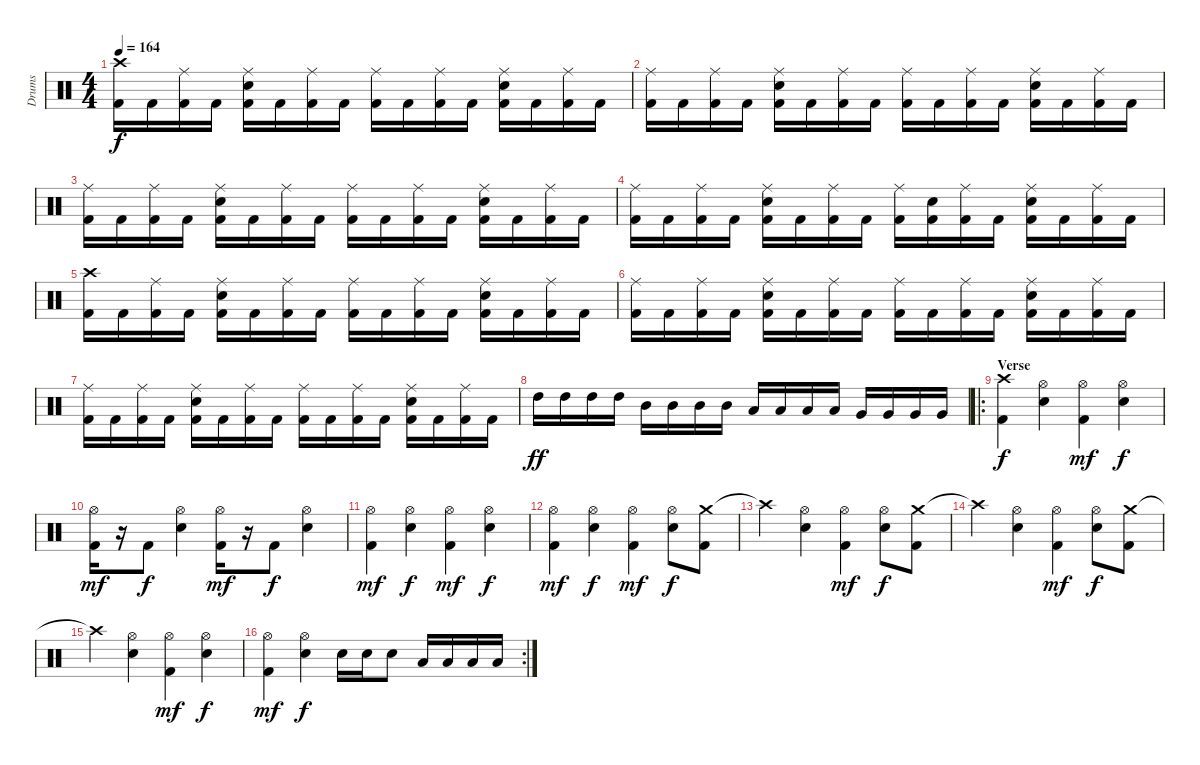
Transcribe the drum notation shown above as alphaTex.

\track ("Drums" "Drums") {instrument percussion}
\staff {score}
\articulation defaults
\ts (4 4)
\tempo 164
\clef neutral
\ks c
("Crash high (hit)" "Kick (hit) 2").16{dy f} "Kick (hit) 2".16 ("Ride (middle)" "Kick (hit) 2").16 "Kick (hit) 2".16 ("Ride (middle)" "Electric Snare (hit)" "Kick (hit) 2").16 "Kick (hit) 2".16 ("Ride (middle)" "Kick (hit) 2").16 "Kick (hit) 2".16 ("Ride (middle)" "Kick (hit) 2").16 "Kick (hit) 2".16 ("Ride (middle)" "Kick (hit) 2").16 "Kick (hit) 2".16 ("Ride (middle)" "Electric Snare (hit)" "Kick (hit) 2").16 "Kick (hit) 2".16 ("Ride (middle)" "Kick (hit) 2").16 "Kick (hit) 2".16 |
("Ride (middle)" "Kick (hit) 2").16 "Kick (hit) 2".16 ("Ride (middle)" "Kick (hit) 2").16 "Kick (hit) 2".16 ("Ride (middle)" "Electric Snare (hit)" "Kick (hit) 2").16 "Kick (hit) 2".16 ("Ride (middle)" "Kick (hit) 2").16 "Kick (hit) 2".16 ("Ride (middle)" "Kick (hit) 2").16 "Kick (hit) 2".16 ("Ride (middle)" "Kick (hit) 2").16 "Kick (hit) 2".16 ("Ride (middle)" "Electric Snare (hit)" "Kick (hit) 2").16 "Kick (hit) 2".16 ("Ride (middle)" "Kick (hit) 2").16 "Kick (hit) 2".16 |
("Ride (middle)" "Kick (hit) 2").16 "Kick (hit) 2".16 ("Ride (middle)" "Kick (hit) 2").16 "Kick (hit) 2".16 ("Ride (middle)" "Electric Snare (hit)" "Kick (hit) 2").16 "Kick (hit) 2".16 ("Ride (middle)" "Kick (hit) 2").16 "Kick (hit) 2".16 ("Ride (middle)" "Kick (hit) 2").16 "Kick (hit) 2".16 ("Ride (middle)" "Kick (hit) 2").16 "Kick (hit) 2".16 ("Ride (middle)" "Electric Snare (hit)" "Kick (hit) 2").16 "Kick (hit) 2".16 ("Ride (middle)" "Kick (hit) 2").16 "Kick (hit) 2".16 |
("Ride (middle)" "Kick (hit) 2").16 "Kick (hit) 2".16 ("Ride (middle)" "Kick (hit) 2").16 "Kick (hit) 2".16 ("Ride (middle)" "Electric Snare (hit)" "Kick (hit) 2").16 "Kick (hit) 2".16 ("Ride (middle)" "Kick (hit) 2").16 "Kick (hit) 2".16 ("Ride (middle)" "Kick (hit) 2").16 ("Electric Snare (hit)" "Kick (hit) 2").16 ("Ride (middle)" "Kick (hit) 2").16 "Kick (hit) 2".16 ("Ride (middle)" "Electric Snare (hit)" "Kick (hit) 2").16 "Kick (hit) 2".16 ("Ride (middle)" "Kick (hit) 2").16 "Kick (hit) 2".16 |
("Crash high (hit)" "Kick (hit) 2").16 "Kick (hit) 2".16 ("Ride (middle)" "Kick (hit) 2").16 "Kick (hit) 2".16 ("Ride (middle)" "Electric Snare (hit)" "Kick (hit) 2").16 "Kick (hit) 2".16 ("Ride (middle)" "Kick (hit) 2").16 "Kick (hit) 2".16 ("Ride (middle)" "Kick (hit) 2").16 "Kick (hit) 2".16 ("Ride (middle)" "Kick (hit) 2").16 "Kick (hit) 2".16 ("Ride (middle)" "Electric Snare (hit)" "Kick (hit) 2").16 "Kick (hit) 2".16 ("Ride (middle)" "Kick (hit) 2").16 "Kick (hit) 2".16 |
("Ride (middle)" "Kick (hit) 2").16 "Kick (hit) 2".16 ("Ride (middle)" "Kick (hit) 2").16 "Kick (hit) 2".16 ("Ride (middle)" "Electric Snare (hit)" "Kick (hit) 2").16 "Kick (hit) 2".16 ("Ride (middle)" "Kick (hit) 2").16 "Kick (hit) 2".16 ("Ride (middle)" "Kick (hit) 2").16 "Kick (hit) 2".16 ("Ride (middle)" "Kick (hit) 2").16 "Kick (hit) 2".16 ("Ride (middle)" "Electric Snare (hit)" "Kick (hit) 2").16 "Kick (hit) 2".16 ("Ride (middle)" "Kick (hit) 2").16 "Kick (hit) 2".16 |
("Ride (middle)" "Kick (hit) 2").16 "Kick (hit) 2".16 ("Ride (middle)" "Kick (hit) 2").16 "Kick (hit) 2".16 ("Ride (middle)" "Electric Snare (hit)" "Kick (hit) 2").16 "Kick (hit) 2".16 ("Ride (middle)" "Kick (hit) 2").16 "Kick (hit) 2".16 ("Ride (middle)" "Kick (hit) 2").16 "Kick (hit) 2".16 ("Ride (middle)" "Kick (hit) 2").16 "Kick (hit) 2".16 ("Ride (middle)" "Electric Snare (hit)" "Kick (hit) 2").16 "Kick (hit) 2".16 ("Ride (middle)" "Kick (hit) 2").16 "Kick (hit) 2".16 |
"High Tom (hit)".16{dy ff} "High Tom (hit)".16 "High Tom (hit)".16 "High Tom (hit)".16 "Mid Tom (hit)".16 "Mid Tom (hit)".16 "Mid Tom (hit)".16 "Mid Tom (hit)".16 "Low Tom (hit)".16 "Low Tom (hit)".16 "Low Tom (hit)".16 "Low Tom (hit)".16 "Very Low Tom (hit)".16 "Very Low Tom (hit)".16 "Very Low Tom (hit)".16 "Very Low Tom (hit)".16 |
\ro
\section ("" "Verse")
("Crash high (hit)" "Kick (hit) 2").4{dy f} ("Hi-Hat (open)" "Electric Snare (hit)").4 ("Hi-Hat (open)" "Kick (hit) 2").4{dy mf} ("Hi-Hat (open)" "Electric Snare (hit)").4{dy f} |
("Hi-Hat (open)" "Kick (hit) 2").16{dy mf} r.16 "Kick (hit) 2".8{dy f} ("Hi-Hat (open)" "Electric Snare (hit)").4 ("Hi-Hat (open)" "Kick (hit) 2").16{dy mf} r.16 "Kick (hit) 2".8{dy f} ("Hi-Hat (open)" "Electric Snare (hit)").4 |
("Hi-Hat (open)" "Kick (hit) 2").4{dy mf} ("Hi-Hat (open)" "Electric Snare (hit)").4{dy f} ("Hi-Hat (open)" "Kick (hit) 2").4{dy mf} ("Hi-Hat (open)" "Electric Snare (hit)").4{dy f} |
("Hi-Hat (open)" "Kick (hit) 2").4{dy mf} ("Hi-Hat (open)" "Electric Snare (hit)").4{dy f} ("Hi-Hat (open)" "Kick (hit) 2").4{dy mf} ("Hi-Hat (open)" "Electric Snare (hit)").8{dy f} ("Crash medium (hit)" "Kick (hit) 2").8 |
"Crash high (hit)"{t}.4 ("Hi-Hat (open)" "Electric Snare (hit)").4 ("Hi-Hat (open)" "Kick (hit) 2").4{dy mf} ("Hi-Hat (open)" "Electric Snare (hit)").8{dy f} ("Crash medium (hit)" "Kick (hit) 2").8 |
"Crash high (hit)"{t}.4 ("Hi-Hat (open)" "Electric Snare (hit)").4 ("Hi-Hat (open)" "Kick (hit) 2").4{dy mf} ("Hi-Hat (open)" "Electric Snare (hit)").8{dy f} ("Crash medium (hit)" "Kick (hit) 2").8 |
"Crash high (hit)"{t}.4 ("Hi-Hat (open)" "Electric Snare (hit)").4 ("Hi-Hat (open)" "Kick (hit) 2").4{dy mf} ("Hi-Hat (open)" "Electric Snare (hit)").4{dy f} |
\rc 2
("Hi-Hat (open)" "Kick (hit) 2").4{dy mf} ("Hi-Hat (open)" "Electric Snare (hit)").4{dy f} "Electric Snare (hit)".16 "Electric Snare (hit)".16 "Electric Snare (hit)".8 "Low Tom (hit)".16 "Low Tom (hit)".16 "Low Tom (hit)".16 "Low Tom (hit)".16
